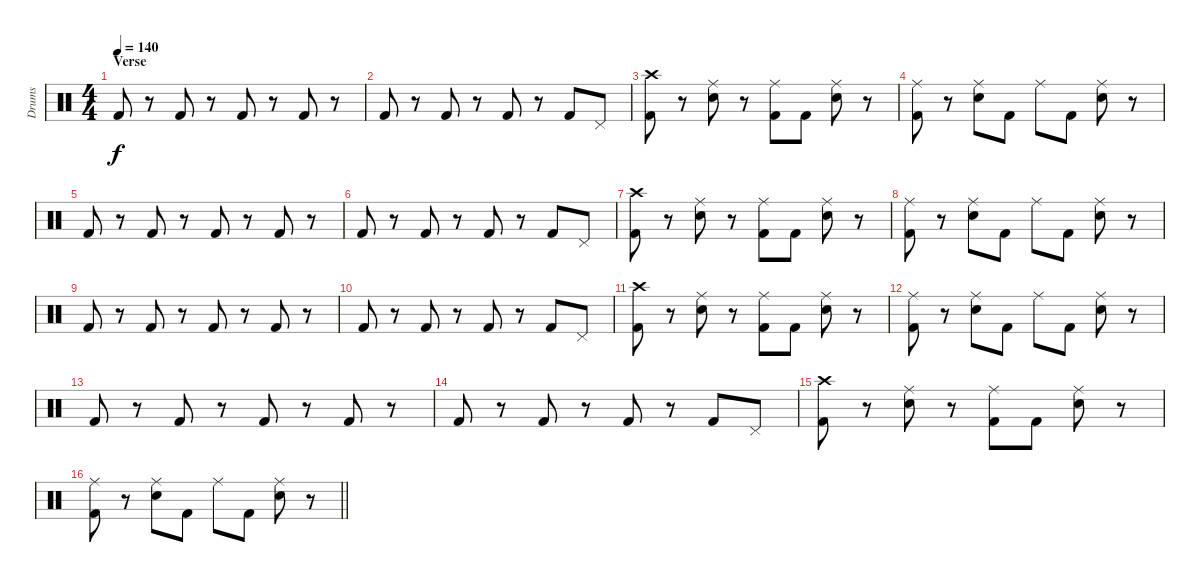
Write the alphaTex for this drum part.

\track ("Drums" "Drums") {instrument percussion}
\staff {score}
\articulation defaults
\ts (4 4)
\section ("" "Verse")
\tempo 140
\clef neutral
\ks c "Kick (hit) 2".8{dy f}
r.8 "Kick (hit) 2".8 r.8 "Kick (hit) 2".8 r.8 "Kick (hit) 2".8 r.8 |
"Kick (hit) 2".8 r.8 "Kick (hit) 2".8 r.8 "Kick (hit) 2".8 r.8 "Kick (hit) 2".8 "Pedal Hi-Hat (hit)".8 |
("Crash high (hit)" "Kick (hit) 2").8 r.8 ("Ride (middle)" "Snare (hit) 2").8 r.8 ("Ride (middle)" "Kick (hit) 2").8 "Kick (hit) 2".8 ("Ride (middle)" "Snare (hit) 2").8 r.8 |
("Ride (middle)" "Kick (hit) 2").8 r.8 ("Ride (middle)" "Snare (hit) 2").8 "Kick (hit) 2".8 "Ride (middle)".8 "Kick (hit) 2".8 ("Ride (middle)" "Snare (hit) 2").8 r.8 |
"Kick (hit) 2".8 r.8 "Kick (hit) 2".8 r.8 "Kick (hit) 2".8 r.8 "Kick (hit) 2".8 r.8 |
"Kick (hit) 2".8 r.8 "Kick (hit) 2".8 r.8 "Kick (hit) 2".8 r.8 "Kick (hit) 2".8 "Pedal Hi-Hat (hit)".8 |
("Crash high (hit)" "Kick (hit) 2").8 r.8 ("Ride (middle)" "Snare (hit) 2").8 r.8 ("Ride (middle)" "Kick (hit) 2").8 "Kick (hit) 2".8 ("Ride (middle)" "Snare (hit) 2").8 r.8 |
("Ride (middle)" "Kick (hit) 2").8 r.8 ("Ride (middle)" "Snare (hit) 2").8 "Kick (hit) 2".8 "Ride (middle)".8 "Kick (hit) 2".8 ("Ride (middle)" "Snare (hit) 2").8 r.8 |
"Kick (hit) 2".8 r.8 "Kick (hit) 2".8 r.8 "Kick (hit) 2".8 r.8 "Kick (hit) 2".8 r.8 |
"Kick (hit) 2".8 r.8 "Kick (hit) 2".8 r.8 "Kick (hit) 2".8 r.8 "Kick (hit) 2".8 "Pedal Hi-Hat (hit)".8 |
("Crash high (hit)" "Kick (hit) 2").8 r.8 ("Ride (middle)" "Snare (hit) 2").8 r.8 ("Ride (middle)" "Kick (hit) 2").8 "Kick (hit) 2".8 ("Ride (middle)" "Snare (hit) 2").8 r.8 |
("Ride (middle)" "Kick (hit) 2").8 r.8 ("Ride (middle)" "Snare (hit) 2").8 "Kick (hit) 2".8 "Ride (middle)".8 "Kick (hit) 2".8 ("Ride (middle)" "Snare (hit) 2").8 r.8 |
"Kick (hit) 2".8 r.8 "Kick (hit) 2".8 r.8 "Kick (hit) 2".8 r.8 "Kick (hit) 2".8 r.8 |
"Kick (hit) 2".8 r.8 "Kick (hit) 2".8 r.8 "Kick (hit) 2".8 r.8 "Kick (hit) 2".8 "Pedal Hi-Hat (hit)".8 |
("Crash high (hit)" "Kick (hit) 2").8 r.8 ("Ride (middle)" "Snare (hit) 2").8 r.8 ("Ride (middle)" "Kick (hit) 2").8 "Kick (hit) 2".8 ("Ride (middle)" "Snare (hit) 2").8 r.8 |
\barLineRight lightlight
("Ride (middle)" "Kick (hit) 2").8 r.8 ("Ride (middle)" "Snare (hit) 2").8 "Kick (hit) 2".8 "Ride (middle)".8 "Kick (hit) 2".8 ("Ride (middle)" "Snare (hit) 2").8 r.8
